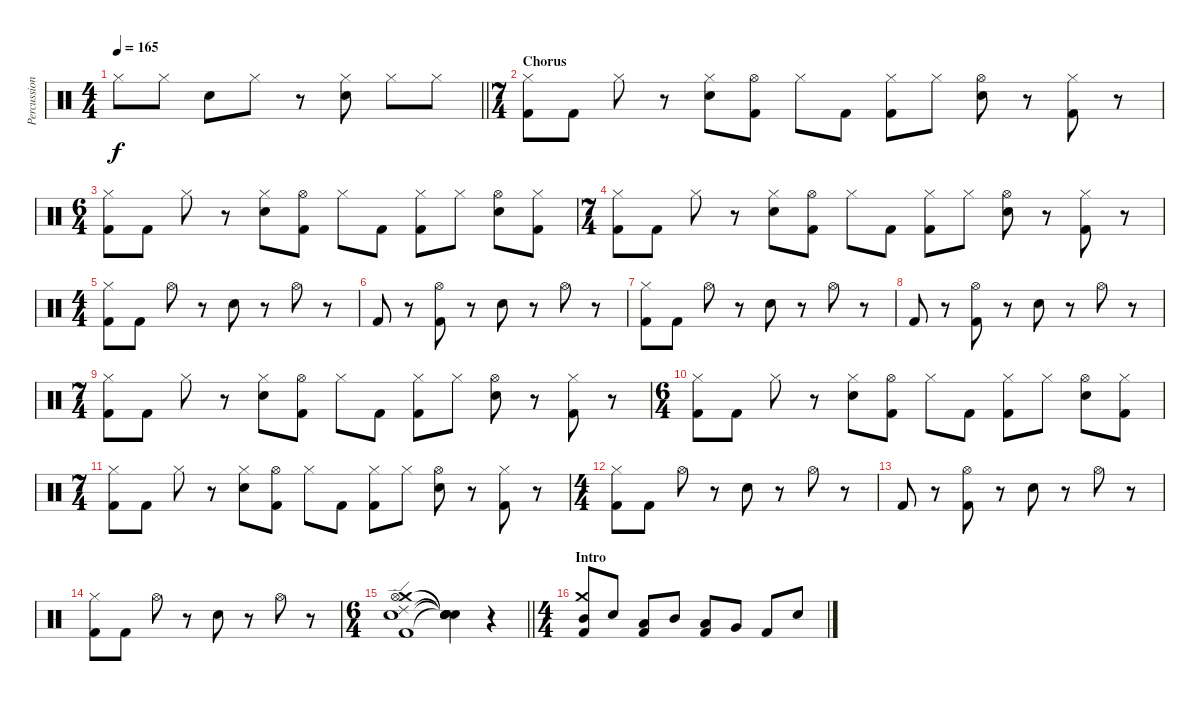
\track ("Percussion" "Percussion") {instrument percussion}
\staff {score}
\articulation defaults
\ts (4 4)
\tempo 165
\clef neutral
\barLineRight lightlight
\ks c "Hi-Hat (closed)".8{dy f} "Hi-Hat (closed)".8 "Snare (hit) 2".8 "Hi-Hat (closed)".8
r.8 ("Hi-Hat (closed)" "Snare (hit) 2").8 "Hi-Hat (closed)".8 "Hi-Hat (closed)".8 |
\ts (7 4)
\section ("" "Chorus")
("Hi-Hat (closed)" "Kick (hit) 2").8 "Kick (hit) 2".8 "Hi-Hat (closed)".8 r.8 ("Hi-Hat (closed)" "Snare (hit) 2").8 ("Hi-Hat (open)" "Kick (hit) 2").8 "Hi-Hat (closed)".8 "Kick (hit) 2".8 ("Hi-Hat (closed)" "Kick (hit) 2").8 "Hi-Hat (closed)".8 ("Hi-Hat (open)" "Snare (hit) 2").8 r.8 ("Hi-Hat (closed)" "Kick (hit) 2").8 r.8 |
\ts (6 4)
("Hi-Hat (closed)" "Kick (hit) 2").8 "Kick (hit) 2".8 "Hi-Hat (closed)".8 r.8 ("Hi-Hat (closed)" "Snare (hit) 2").8 ("Hi-Hat (open)" "Kick (hit) 2").8 "Hi-Hat (closed)".8 "Kick (hit) 2".8 ("Hi-Hat (closed)" "Kick (hit) 2").8 "Hi-Hat (closed)".8 ("Hi-Hat (open)" "Snare (hit) 2").8 ("Hi-Hat (closed)" "Kick (hit) 2").8 |
\ts (7 4)
("Hi-Hat (closed)" "Kick (hit) 2").8 "Kick (hit) 2".8 "Hi-Hat (closed)".8 r.8 ("Hi-Hat (closed)" "Snare (hit) 2").8 ("Hi-Hat (open)" "Kick (hit) 2").8 "Hi-Hat (closed)".8 "Kick (hit) 2".8 ("Hi-Hat (closed)" "Kick (hit) 2").8 "Hi-Hat (closed)".8 ("Hi-Hat (open)" "Snare (hit) 2").8 r.8 ("Hi-Hat (closed)" "Kick (hit) 2").8 r.8 |
\ts (4 4)
("Hi-Hat (closed)" "Kick (hit) 2").8 "Kick (hit) 2".8 "Hi-Hat (open)".8 r.8 "Snare (hit) 2".8 r.8 "Hi-Hat (open)".8 r.8 |
"Kick (hit) 2".8 r.8 ("Hi-Hat (open)" "Kick (hit) 2").8 r.8 "Snare (hit) 2".8 r.8 "Hi-Hat (open)".8 r.8 |
("Hi-Hat (closed)" "Kick (hit) 2").8 "Kick (hit) 2".8 "Hi-Hat (open)".8 r.8 "Snare (hit) 2".8 r.8 "Hi-Hat (open)".8 r.8 |
"Kick (hit) 2".8 r.8 ("Hi-Hat (open)" "Kick (hit) 2").8 r.8 "Snare (hit) 2".8 r.8 "Hi-Hat (open)".8 r.8 |
\ts (7 4)
("Hi-Hat (closed)" "Kick (hit) 2").8 "Kick (hit) 2".8 "Hi-Hat (closed)".8 r.8 ("Hi-Hat (closed)" "Snare (hit) 2").8 ("Hi-Hat (open)" "Kick (hit) 2").8 "Hi-Hat (closed)".8 "Kick (hit) 2".8 ("Hi-Hat (closed)" "Kick (hit) 2").8 "Hi-Hat (closed)".8 ("Hi-Hat (open)" "Snare (hit) 2").8 r.8 ("Hi-Hat (closed)" "Kick (hit) 2").8 r.8 |
\ts (6 4)
("Hi-Hat (closed)" "Kick (hit) 2").8 "Kick (hit) 2".8 "Hi-Hat (closed)".8 r.8 ("Hi-Hat (closed)" "Snare (hit) 2").8 ("Hi-Hat (open)" "Kick (hit) 2").8 "Hi-Hat (closed)".8 "Kick (hit) 2".8 ("Hi-Hat (closed)" "Kick (hit) 2").8 "Hi-Hat (closed)".8 ("Hi-Hat (open)" "Snare (hit) 2").8 ("Hi-Hat (closed)" "Kick (hit) 2").8 |
\ts (7 4)
("Hi-Hat (closed)" "Kick (hit) 2").8 "Kick (hit) 2".8 "Hi-Hat (closed)".8 r.8 ("Hi-Hat (closed)" "Snare (hit) 2").8 ("Hi-Hat (open)" "Kick (hit) 2").8 "Hi-Hat (closed)".8 "Kick (hit) 2".8 ("Hi-Hat (closed)" "Kick (hit) 2").8 "Hi-Hat (closed)".8 ("Hi-Hat (open)" "Snare (hit) 2").8 r.8 ("Hi-Hat (closed)" "Kick (hit) 2").8 r.8 |
\ts (4 4)
("Hi-Hat (closed)" "Kick (hit) 2").8 "Kick (hit) 2".8 "Hi-Hat (open)".8 r.8 "Snare (hit) 2".8 r.8 "Hi-Hat (open)".8 r.8 |
"Kick (hit) 2".8 r.8 ("Hi-Hat (open)" "Kick (hit) 2").8 r.8 "Snare (hit) 2".8 r.8 "Hi-Hat (open)".8 r.8 |
("Hi-Hat (closed)" "Kick (hit) 2").8 "Kick (hit) 2".8 "Hi-Hat (open)".8 r.8 "Snare (hit) 2".8 r.8 "Hi-Hat (open)".8 r.8 |
\ts (6 4)
\barLineRight lightlight
("Ride (edge) 2" "Crash medium (hit)" "Hi-Hat (open)" "Snare (hit) 2" "Kick (hit) 2").1 ("Snare (hit)"{t} "Snare (hit)"{t} "Snare (hit)"{t} "Snare (hit)"{t} "Snare (hit)"{t}).4 r.4 |
\ts (4 4)
\section ("" "Intro")
("Crash medium (hit)" "Mid Tom (hit)" "Kick (hit) 2").8 "Snare (hit) 2".8 ("Low Tom (hit)" "Kick (hit) 2").8 "Mid Tom (hit)".8 ("Low Tom (hit)" "Kick (hit) 2").8 "Very Low Tom (hit)".8 "Kick (hit) 2".8 "Snare (hit) 2".8
